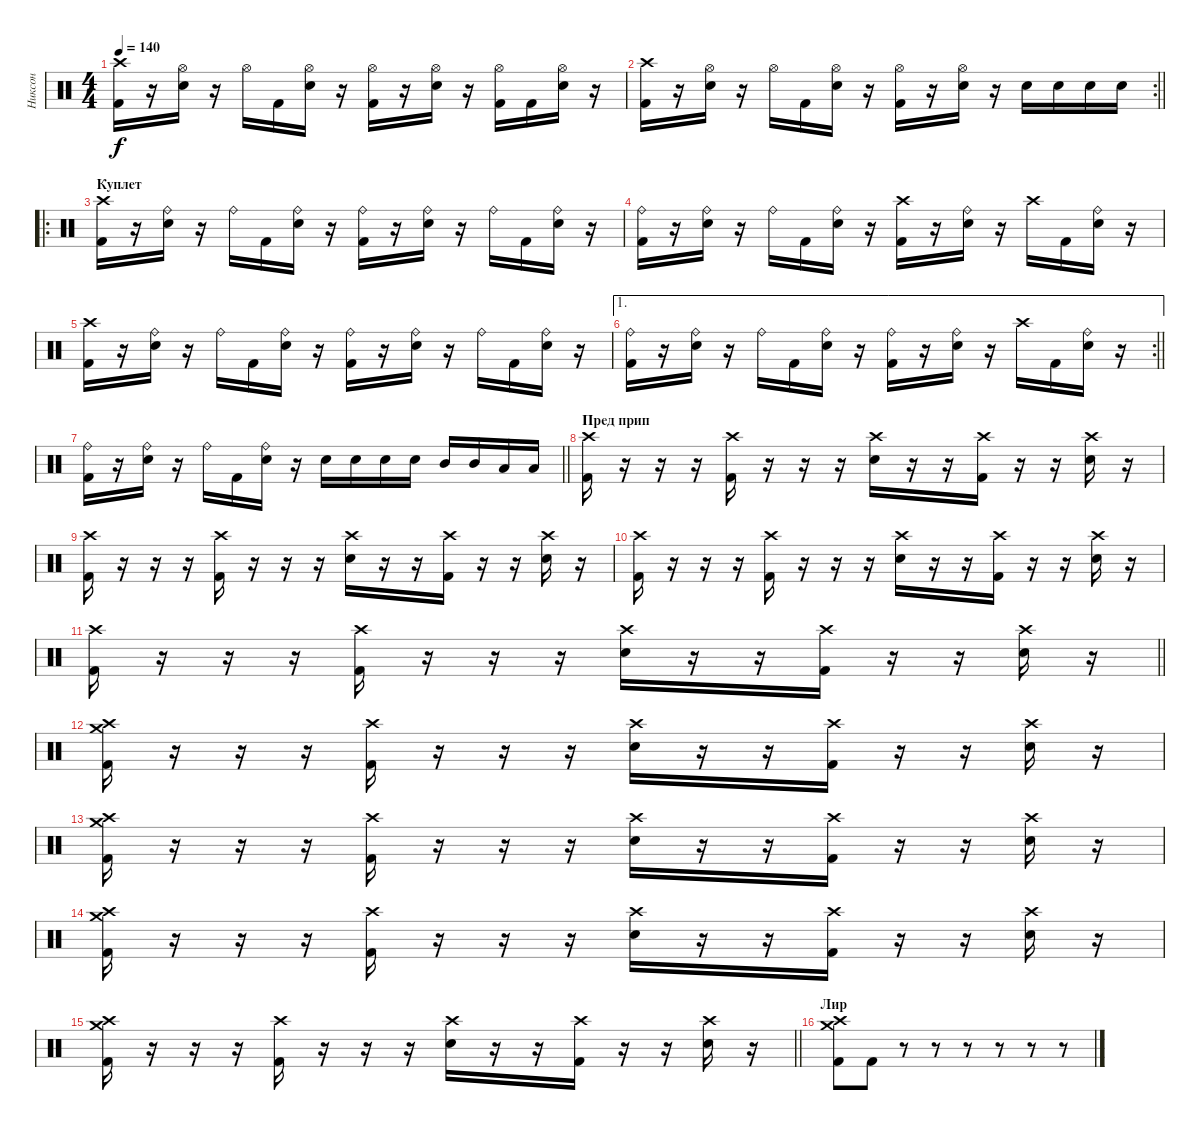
\track ("Никсон" "Никсон") {instrument percussion}
\staff {score}
\articulation defaults
\ts (4 4)
\tempo 140
\clef neutral
\ks c
("Crash high (hit)" "Kick (hit) 2").16{dy f} r.16 ("Hi-Hat (open)" "Snare (hit) 2").16 r.16 "Hi-Hat (open)".16 "Kick (hit) 2".16 ("Hi-Hat (open)" "Snare (hit) 2").16 r.16 ("Hi-Hat (open)" "Kick (hit) 2").16 r.16 ("Hi-Hat (open)" "Snare (hit) 2").16 r.16 ("Hi-Hat (open)" "Kick (hit) 2").16 "Kick (hit) 2".16 ("Hi-Hat (open)" "Snare (hit) 2").16 r.16 |
\rc 2
\barLineRight lightlight
("Crash high (hit)" "Kick (hit) 2").16 r.16 ("Hi-Hat (open)" "Snare (hit) 2").16 r.16 "Hi-Hat (open)".16 "Kick (hit) 2".16 ("Hi-Hat (open)" "Snare (hit) 2").16 r.16 ("Hi-Hat (open)" "Kick (hit) 2").16 r.16 ("Hi-Hat (open)" "Snare (hit) 2").16 r.16 "Snare (hit) 2".16 "Snare (hit) 2".16 "Snare (hit) 2".16 "Snare (hit) 2".16 |
\ro
\section ("" "Куплет ")
("Crash high (hit)" "Kick (hit) 2").16 r.16 ("Ride (bell)" "Snare (hit) 2").16 r.16 "Ride (bell)".16 "Kick (hit) 2".16 ("Ride (bell)" "Snare (hit) 2").16 r.16 ("Ride (bell)" "Kick (hit) 2").16 r.16 ("Ride (bell)" "Snare (hit) 2").16 r.16 "Ride (bell)".16 "Kick (hit) 2".16 ("Ride (bell)" "Snare (hit) 2").16 r.16 |
("Ride (bell)" "Kick (hit) 2").16 r.16 ("Ride (bell)" "Snare (hit) 2").16 r.16 "Ride (bell)".16 "Kick (hit) 2".16 ("Ride (bell)" "Snare (hit) 2").16 r.16 ("Crash high (hit)" "Kick (hit) 2").16 r.16 ("Ride (bell)" "Snare (hit) 2").16 r.16 "Crash high (hit)".16 "Kick (hit) 2".16 ("Ride (bell)" "Snare (hit) 2").16 r.16 |
("Crash high (hit)" "Kick (hit) 2").16 r.16 ("Ride (bell)" "Snare (hit) 2").16 r.16 "Ride (bell)".16 "Kick (hit) 2".16 ("Ride (bell)" "Snare (hit) 2").16 r.16 ("Ride (bell)" "Kick (hit) 2").16 r.16 ("Ride (bell)" "Snare (hit) 2").16 r.16 "Ride (bell)".16 "Kick (hit) 2".16 ("Ride (bell)" "Snare (hit) 2").16 r.16 |
\ae 1
\rc 2
\barLineRight lightlight
("Ride (bell)" "Kick (hit) 2").16 r.16 ("Ride (bell)" "Snare (hit) 2").16 r.16 "Ride (bell)".16 "Kick (hit) 2".16 ("Ride (bell)" "Snare (hit) 2").16 r.16 ("Ride (bell)" "Kick (hit) 2").16 r.16 ("Ride (bell)" "Snare (hit) 2").16 r.16 "Crash high (hit)".16 "Kick (hit) 2".16 ("Ride (bell)" "Snare (hit) 2").16 r.16 |
\barLineRight lightlight
("Ride (bell)" "Kick (hit) 2").16 r.16 ("Ride (bell)" "Snare (hit) 2").16 r.16 "Ride (bell)".16 "Kick (hit) 2".16 ("Ride (bell)" "Snare (hit) 2").16 r.16 "Snare (hit) 2".16 "Snare (hit) 2".16 "Snare (hit) 2".16 "Snare (hit) 2".16 "Mid Tom (hit)".16 "Mid Tom (hit)".16 "Low Tom (hit)".16 "Low Tom (hit)".16 |
\section ("" "Пред прип")
("Crash high (hit)" "Kick (hit) 2").16 r.16 r.16 r.16 ("Crash high (hit)" "Kick (hit) 2").16 r.16 r.16 r.16 ("Crash high (hit)" "Snare (hit) 2").16 r.16 r.16 ("Crash high (hit)" "Kick (hit) 2").16 r.16 r.16 ("Crash high (hit)" "Snare (hit) 2").16 r.16 |
("Crash high (hit)" "Kick (hit) 2").16 r.16 r.16 r.16 ("Crash high (hit)" "Kick (hit) 2").16 r.16 r.16 r.16 ("Crash high (hit)" "Snare (hit) 2").16 r.16 r.16 ("Crash high (hit)" "Kick (hit) 2").16 r.16 r.16 ("Crash high (hit)" "Snare (hit) 2").16 r.16 |
("Crash high (hit)" "Kick (hit) 2").16 r.16 r.16 r.16 ("Crash high (hit)" "Kick (hit) 2").16 r.16 r.16 r.16 ("Crash high (hit)" "Snare (hit) 2").16 r.16 r.16 ("Crash high (hit)" "Kick (hit) 2").16 r.16 r.16 ("Crash high (hit)" "Snare (hit) 2").16 r.16 |
\barLineRight lightlight
("Crash high (hit)" "Kick (hit) 2").16 r.16 r.16 r.16 ("Crash high (hit)" "Kick (hit) 2").16 r.16 r.16 r.16 ("Crash high (hit)" "Snare (hit) 2").16 r.16 r.16 ("Crash high (hit)" "Kick (hit) 2").16 r.16 r.16 ("Crash high (hit)" "Snare (hit) 2").16 r.16 |
("Crash high (hit)" "Crash medium (hit)" "Kick (hit) 2").16 r.16 r.16 r.16 ("Crash high (hit)" "Kick (hit) 2").16 r.16 r.16 r.16 ("Crash high (hit)" "Snare (hit) 2").16 r.16 r.16 ("Crash high (hit)" "Kick (hit) 2").16 r.16 r.16 ("Crash high (hit)" "Snare (hit) 2").16 r.16 |
("Crash high (hit)" "Crash medium (hit)" "Kick (hit) 2").16 r.16 r.16 r.16 ("Crash high (hit)" "Kick (hit) 2").16 r.16 r.16 r.16 ("Crash high (hit)" "Snare (hit) 2").16 r.16 r.16 ("Crash high (hit)" "Kick (hit) 2").16 r.16 r.16 ("Crash high (hit)" "Snare (hit) 2").16 r.16 |
("Crash high (hit)" "Crash medium (hit)" "Kick (hit) 2").16 r.16 r.16 r.16 ("Crash high (hit)" "Kick (hit) 2").16 r.16 r.16 r.16 ("Crash high (hit)" "Snare (hit) 2").16 r.16 r.16 ("Crash high (hit)" "Kick (hit) 2").16 r.16 r.16 ("Crash high (hit)" "Snare (hit) 2").16 r.16 |
\barLineRight lightlight
("Crash high (hit)" "Crash medium (hit)" "Kick (hit) 2").16 r.16 r.16 r.16 ("Crash high (hit)" "Kick (hit) 2").16 r.16 r.16 r.16 ("Crash high (hit)" "Snare (hit) 2").16 r.16 r.16 ("Crash high (hit)" "Kick (hit) 2").16 r.16 r.16 ("Crash high (hit)" "Snare (hit) 2").16 r.16 |
\section ("" "Лир")
("Crash high (hit)" "Crash medium (hit)" "Kick (hit) 2").8 "Kick (hit) 2".8 r.8 r.8 r.8 r.8 r.8 r.8
